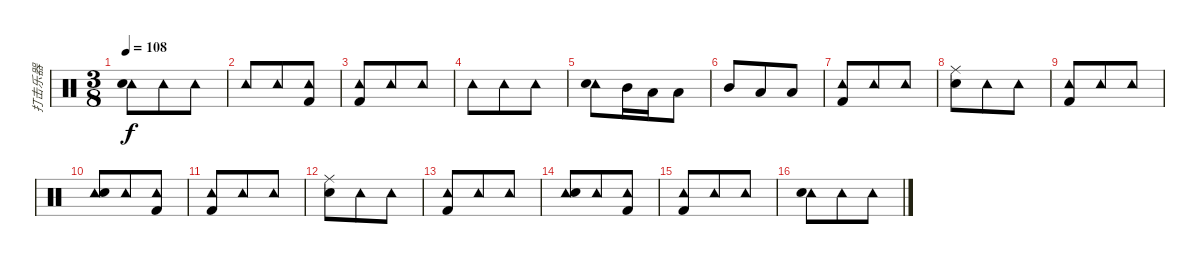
\track ("打击乐器" "打击乐器") {instrument percussion}
\staff {score}
\articulation defaults
\ts (3 8)
\tempo 108
\clef neutral
\ks c
("Tambourine (hit)" "Snare (hit) 2").8{dy f} "Tambourine (hit)".8 "Tambourine (hit)".8 |
"Tambourine (hit)".8 "Tambourine (hit)".8 ("Tambourine (hit)" "Kick (hit) 2").8 |
("Tambourine (hit)" "Kick (hit) 2").8 "Tambourine (hit)".8 "Tambourine (hit)".8 |
"Tambourine (hit)".8 "Tambourine (hit)".8 "Tambourine (hit)".8 |
("Tambourine (hit)" "Snare (hit) 2").8 "Mid Tom (hit)".16 "Low Tom (hit)".16 "Low Floor Tom (hit)".8 |
"Mid Tom (hit)".8 "Low Tom (hit)".8 "Low Floor Tom (hit)".8 |
("Tambourine (hit)" "Kick (hit) 2").8 "Tambourine (hit)".8 "Tambourine (hit)".8 |
("Ride (middle)" "Snare (hit) 2").8 "Tambourine (hit)".8 "Tambourine (hit)".8 |
("Tambourine (hit)" "Kick (hit) 2").8 "Tambourine (hit)".8 "Tambourine (hit)".8 |
("Tambourine (hit)" "Snare (hit) 2").8 "Tambourine (hit)".8 ("Tambourine (hit)" "Kick (hit) 2").8 |
("Tambourine (hit)" "Kick (hit) 2").8 "Tambourine (hit)".8 "Tambourine (hit)".8 |
("Ride (middle)" "Snare (hit) 2").8 "Tambourine (hit)".8 "Tambourine (hit)".8 |
("Tambourine (hit)" "Kick (hit) 2").8 "Tambourine (hit)".8 "Tambourine (hit)".8 |
("Tambourine (hit)" "Snare (hit) 2").8 "Tambourine (hit)".8 ("Tambourine (hit)" "Kick (hit) 2").8 |
("Tambourine (hit)" "Kick (hit) 2").8 "Tambourine (hit)".8 "Tambourine (hit)".8 |
("Tambourine (hit)" "Snare (hit) 2").8 "Tambourine (hit)".8 "Tambourine (hit)".8
